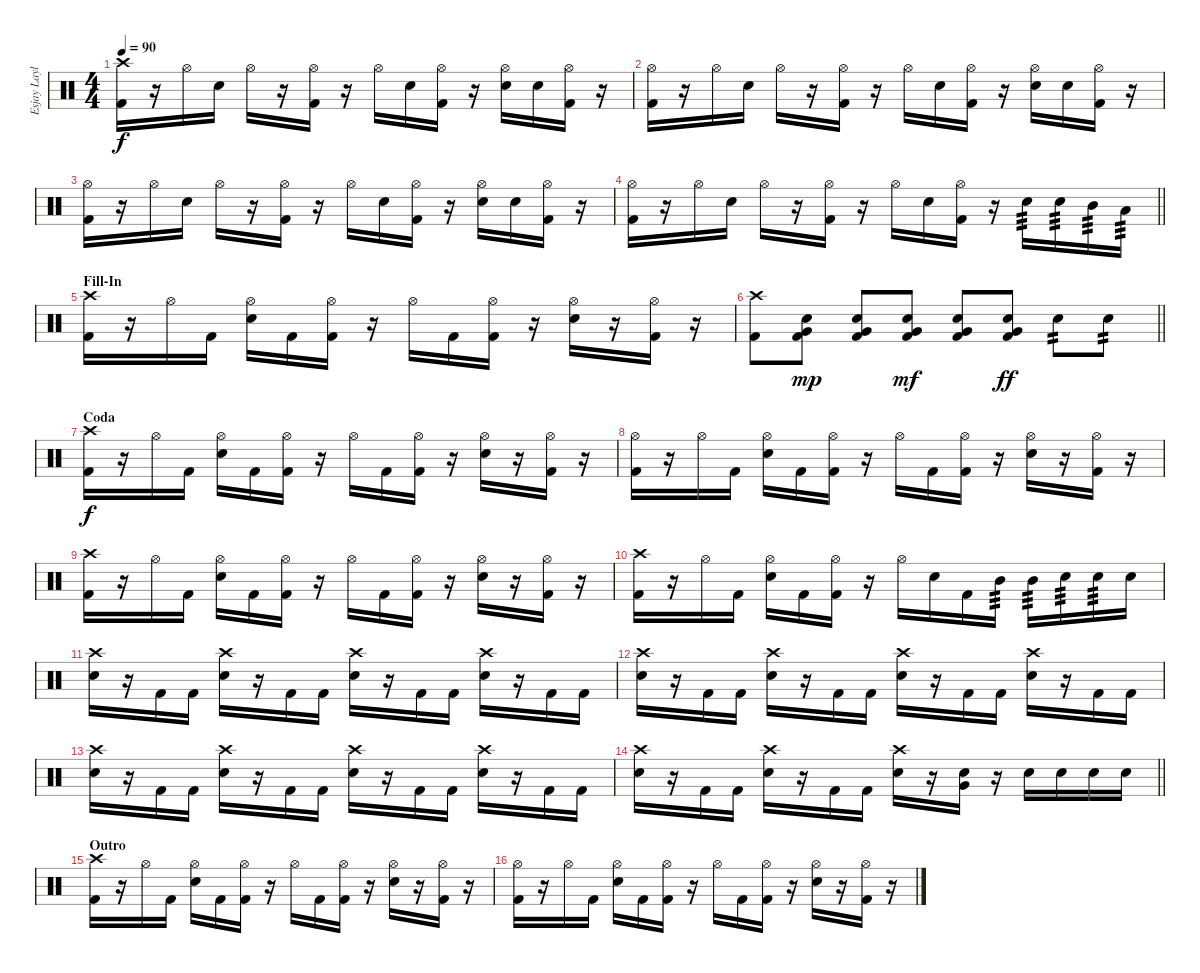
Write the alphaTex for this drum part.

\track ("Esjay Laylo's Drums" "Esjay Layl") {instrument percussion}
\staff {score}
\articulation defaults
\ts (4 4)
\tempo 90
\clef neutral
\ks c
("Crash high (hit)" "Kick (hit) 2").16{dy f} r.16 "Hi-Hat (open)".16 "Snare (hit) 2".16 "Hi-Hat (open)".16 r.16 ("Hi-Hat (open)" "Kick (hit) 2").16 r.16 "Hi-Hat (open)".16 "Snare (hit) 2".16 ("Hi-Hat (open)" "Kick (hit) 2").16 r.16 ("Hi-Hat (open)" "Snare (hit) 2").16 "Snare (hit) 2".16 ("Hi-Hat (open)" "Kick (hit) 2").16 r.16 |
("Hi-Hat (open)" "Kick (hit) 2").16 r.16 "Hi-Hat (open)".16 "Snare (hit) 2".16 "Hi-Hat (open)".16 r.16 ("Hi-Hat (open)" "Kick (hit) 2").16 r.16 "Hi-Hat (open)".16 "Snare (hit) 2".16 ("Hi-Hat (open)" "Kick (hit) 2").16 r.16 ("Hi-Hat (open)" "Snare (hit) 2").16 "Snare (hit) 2".16 ("Hi-Hat (open)" "Kick (hit) 2").16 r.16 |
("Hi-Hat (open)" "Kick (hit) 2").16 r.16 "Hi-Hat (open)".16 "Snare (hit) 2".16 "Hi-Hat (open)".16 r.16 ("Hi-Hat (open)" "Kick (hit) 2").16 r.16 "Hi-Hat (open)".16 "Snare (hit) 2".16 ("Hi-Hat (open)" "Kick (hit) 2").16 r.16 ("Hi-Hat (open)" "Snare (hit) 2").16 "Snare (hit) 2".16 ("Hi-Hat (open)" "Kick (hit) 2").16 r.16 |
\barLineRight lightlight
("Hi-Hat (open)" "Kick (hit) 2").16 r.16 "Hi-Hat (open)".16 "Snare (hit) 2".16 "Hi-Hat (open)".16 r.16 ("Hi-Hat (open)" "Kick (hit) 2").16 r.16 "Hi-Hat (open)".16 "Snare (hit) 2".16 ("Hi-Hat (open)" "Kick (hit) 2").16 r.16 "Snare (hit) 2".16{tp 3} "Snare (hit) 2".16{tp 3} "Mid Tom (hit)".16{tp 3} "Low Tom (hit)".16{tp 3} |
\section ("" "Fill-In")
("Crash high (hit)" "Kick (hit) 2").16 r.16 "Hi-Hat (open)".16 "Kick (hit) 2".16 ("Hi-Hat (open)" "Snare (hit) 2").16 "Kick (hit) 2".16 ("Hi-Hat (open)" "Kick (hit) 2").16 r.16 "Hi-Hat (open)".16 "Kick (hit) 2".16 ("Hi-Hat (open)" "Kick (hit) 2").16 r.16 ("Hi-Hat (open)" "Snare (hit) 2").16 r.16 ("Hi-Hat (open)" "Kick (hit) 2").16 r.16 |
\barLineRight lightlight
("Crash high (hit)" "Kick (hit) 2").8 ("Very Low Tom (hit)" "Kick (hit) 2" "Snare (hit) 2").8{dy mp} ("Very Low Tom (hit)" "Kick (hit) 2" "Snare (hit) 2").8 ("Very Low Tom (hit)" "Kick (hit) 2" "Snare (hit) 2").8{dy mf} ("Very Low Tom (hit)" "Kick (hit) 2" "Snare (hit) 2").8 ("Very Low Tom (hit)" "Kick (hit) 2" "Snare (hit) 2").8{dy ff} "Snare (hit) 2".8{tp 2} "Snare (hit) 2".8{tp 2} |
\section ("" "Coda")
("Crash high (hit)" "Kick (hit) 2").16{dy f} r.16 "Hi-Hat (open)".16 "Kick (hit) 2".16 ("Hi-Hat (open)" "Snare (hit) 2").16 "Kick (hit) 2".16 ("Hi-Hat (open)" "Kick (hit) 2").16 r.16 "Hi-Hat (open)".16 "Kick (hit) 2".16 ("Hi-Hat (open)" "Kick (hit) 2").16 r.16 ("Hi-Hat (open)" "Snare (hit) 2").16 r.16 ("Hi-Hat (open)" "Kick (hit) 2").16 r.16 |
("Hi-Hat (open)" "Kick (hit) 2").16 r.16 "Hi-Hat (open)".16 "Kick (hit) 2".16 ("Hi-Hat (open)" "Snare (hit) 2").16 "Kick (hit) 2".16 ("Hi-Hat (open)" "Kick (hit) 2").16 r.16 "Hi-Hat (open)".16 "Kick (hit) 2".16 ("Hi-Hat (open)" "Kick (hit) 2").16 r.16 ("Hi-Hat (open)" "Snare (hit) 2").16 r.16 ("Hi-Hat (open)" "Kick (hit) 2").16 r.16 |
("Crash high (hit)" "Kick (hit) 2").16 r.16 "Hi-Hat (open)".16 "Kick (hit) 2".16 ("Hi-Hat (open)" "Snare (hit) 2").16 "Kick (hit) 2".16 ("Hi-Hat (open)" "Kick (hit) 2").16 r.16 "Hi-Hat (open)".16 "Kick (hit) 2".16 ("Hi-Hat (open)" "Kick (hit) 2").16 r.16 ("Hi-Hat (open)" "Snare (hit) 2").16 r.16 ("Hi-Hat (open)" "Kick (hit) 2").16 r.16 |
("Crash high (hit)" "Kick (hit) 2").16 r.16 "Hi-Hat (open)".16 "Kick (hit) 2".16 ("Hi-Hat (open)" "Snare (hit) 2").16 "Kick (hit) 2".16 ("Hi-Hat (open)" "Kick (hit) 2").16 r.16 "Hi-Hat (open)".16 "Snare (hit) 2".16 "Kick (hit) 2".16 "Mid Tom (hit)".16{tp 3} "Mid Tom (hit)".16{tp 3} "Snare (hit) 2".16{tp 3} "Snare (hit) 2".16{tp 3} "Snare (hit) 2".16 |
("Crash high (hit)" "Snare (hit) 2").16 r.16 "Kick (hit) 2".16 "Kick (hit) 2".16 ("Crash high (hit)" "Snare (hit) 2").16 r.16 "Kick (hit) 2".16 "Kick (hit) 2".16 ("Crash high (hit)" "Snare (hit) 2").16 r.16 "Kick (hit) 2".16 "Kick (hit) 2".16 ("Crash high (hit)" "Snare (hit) 2").16 r.16 "Kick (hit) 2".16 "Kick (hit) 2".16 |
("Crash high (hit)" "Snare (hit) 2").16 r.16 "Kick (hit) 2".16 "Kick (hit) 2".16 ("Crash high (hit)" "Snare (hit) 2").16 r.16 "Kick (hit) 2".16 "Kick (hit) 2".16 ("Crash high (hit)" "Snare (hit) 2").16 r.16 "Kick (hit) 2".16 "Kick (hit) 2".16 ("Crash high (hit)" "Snare (hit) 2").16 r.16 "Kick (hit) 2".16 "Kick (hit) 2".16 |
("Crash high (hit)" "Snare (hit) 2").16 r.16 "Kick (hit) 2".16 "Kick (hit) 2".16 ("Crash high (hit)" "Snare (hit) 2").16 r.16 "Kick (hit) 2".16 "Kick (hit) 2".16 ("Crash high (hit)" "Snare (hit) 2").16 r.16 "Kick (hit) 2".16 "Kick (hit) 2".16 ("Crash high (hit)" "Snare (hit) 2").16 r.16 "Kick (hit) 2".16 "Kick (hit) 2".16 |
\barLineRight lightlight
("Crash high (hit)" "Snare (hit) 2").16 r.16 "Kick (hit) 2".16 "Kick (hit) 2".16 ("Crash high (hit)" "Snare (hit) 2").16 r.16 "Kick (hit) 2".16 "Kick (hit) 2".16 ("Crash high (hit)" "Snare (hit) 2").16 r.16 ("Very Low Tom (hit)" "Snare (hit) 2").16 r.16 "Snare (hit) 2".16 "Snare (hit) 2".16 "Snare (hit) 2".16 "Snare (hit) 2".16 |
\section ("" "Outro")
("Crash high (hit)" "Kick (hit) 2").16 r.16 "Hi-Hat (open)".16 "Kick (hit) 2".16 ("Hi-Hat (open)" "Snare (hit) 2").16 "Kick (hit) 2".16 ("Hi-Hat (open)" "Kick (hit) 2").16 r.16 "Hi-Hat (open)".16 "Kick (hit) 2".16 ("Hi-Hat (open)" "Kick (hit) 2").16 r.16 ("Hi-Hat (open)" "Snare (hit) 2").16 r.16 ("Hi-Hat (open)" "Kick (hit) 2").16 r.16 |
("Hi-Hat (open)" "Kick (hit) 2").16 r.16 "Hi-Hat (open)".16 "Kick (hit) 2".16 ("Hi-Hat (open)" "Snare (hit) 2").16 "Kick (hit) 2".16 ("Hi-Hat (open)" "Kick (hit) 2").16 r.16 "Hi-Hat (open)".16 "Kick (hit) 2".16 ("Hi-Hat (open)" "Kick (hit) 2").16 r.16 ("Hi-Hat (open)" "Snare (hit) 2").16 r.16 ("Hi-Hat (open)" "Kick (hit) 2").16 r.16
